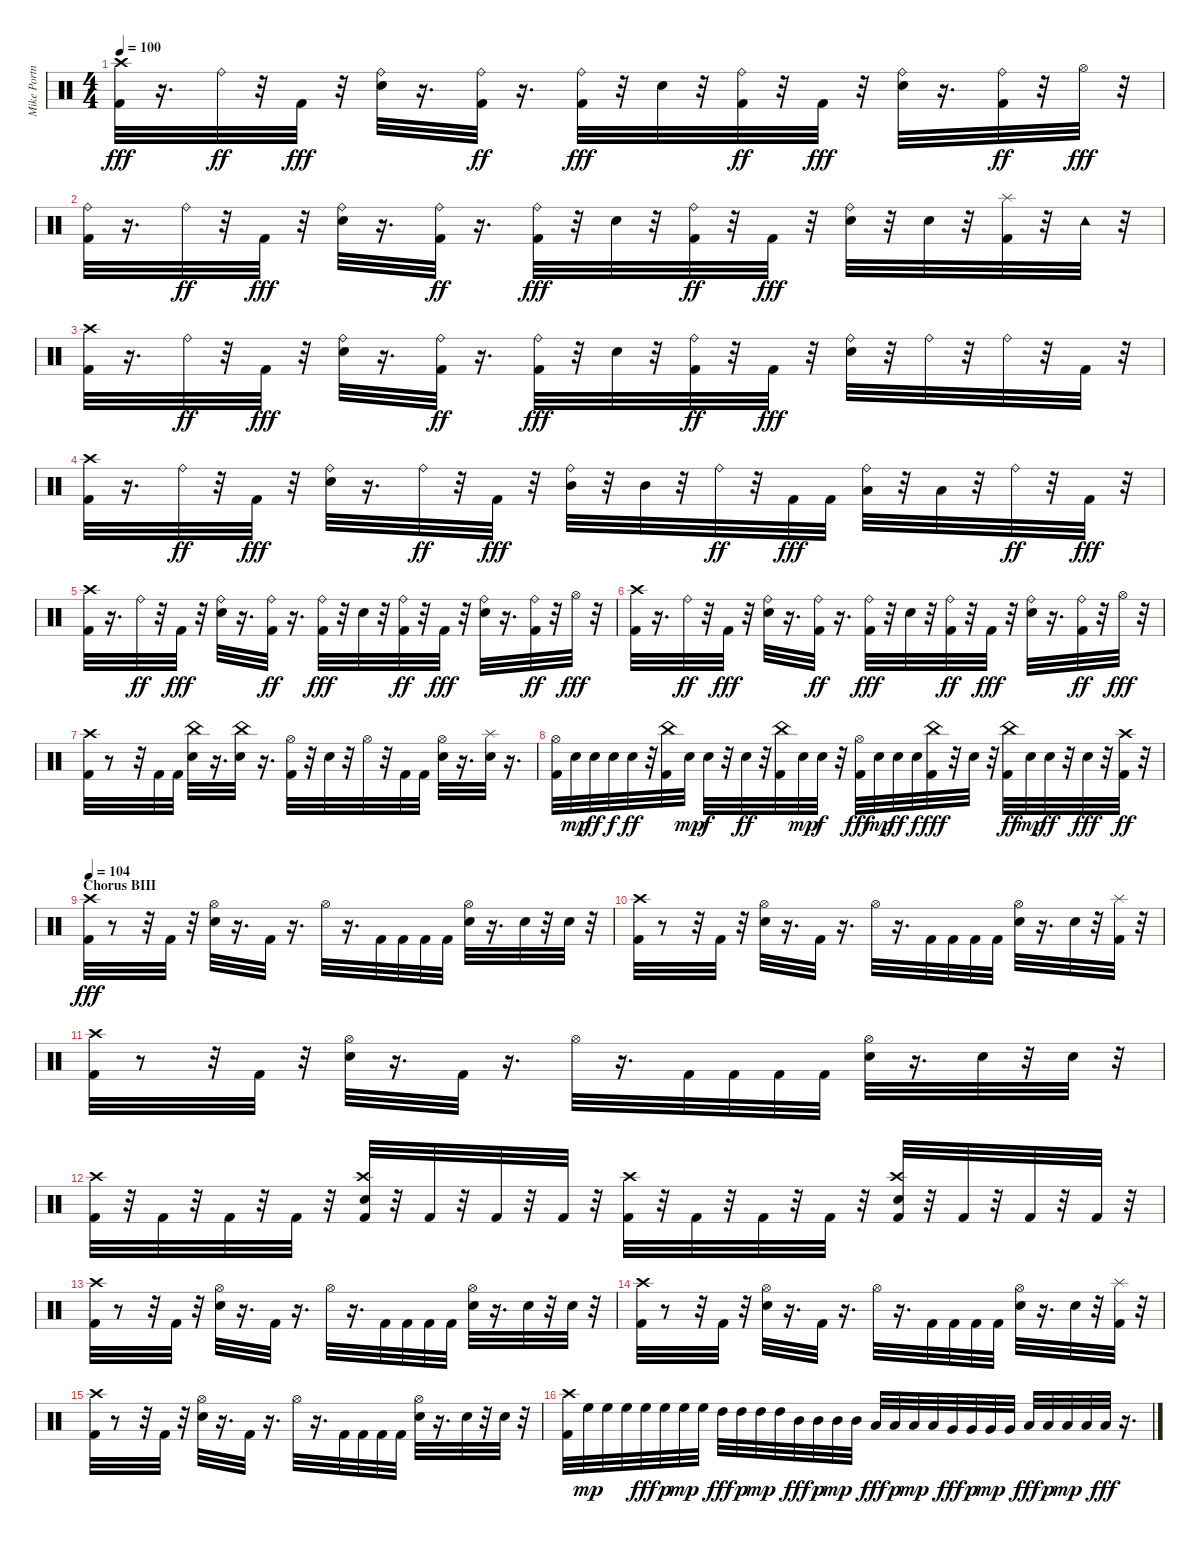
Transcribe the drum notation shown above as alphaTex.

\track ("Mike Portnoy" "Mike Portn") {instrument percussion}
\staff {score}
\articulation defaults
\ts (4 4)
\tempo 100
\clef neutral
\ks c
("Kick (hit) 2" "Crash high (hit)").32{dy fff} r.16{d} "Ride (bell)".32{dy ff} r.32 "Kick (hit) 2".32{dy fff} r.32 ("Ride (bell)" "Snare (hit) 2").32 r.16{d} ("Kick (hit) 2" "Ride (bell)").32{dy ff} r.16{d} ("Kick (hit) 2" "Ride (bell)").32{dy fff} r.32 "Snare (hit) 2".32 r.32 ("Kick (hit) 2" "Ride (bell)").32{dy ff} r.32 "Kick (hit) 2".32{dy fff} r.32 ("Ride (bell)" "Snare (hit) 2").32 r.16{d} ("Kick (hit) 2" "Ride (bell)").32{dy ff} r.32 "Hi-Hat (open)".32{dy fff} r.32 |
("Kick (hit) 2" "Ride (bell)").32 r.16{d} "Ride (bell)".32{dy ff} r.32 "Kick (hit) 2".32{dy fff} r.32 ("Ride (bell)" "Snare (hit) 2").32 r.16{d} ("Kick (hit) 2" "Ride (bell)").32{dy ff} r.16{d} ("Kick (hit) 2" "Ride (bell)").32{dy fff} r.32 "Snare (hit) 2".32 r.32 ("Kick (hit) 2" "Ride (bell)").32{dy ff} r.32 "Kick (hit) 2".32{dy fff} r.32 ("Ride (bell)" "Snare (hit) 2").32 r.32 "Snare (hit) 2".32 r.32 ("Kick (hit) 2" "Splash (hit)").32 r.32 "Tambourine (hit)".32 r.32 |
("Kick (hit) 2" "Crash high (hit)").32 r.16{d} "Ride (bell)".32{dy ff} r.32 "Kick (hit) 2".32{dy fff} r.32 ("Ride (bell)" "Snare (hit) 2").32 r.16{d} ("Kick (hit) 2" "Ride (bell)").32{dy ff} r.16{d} ("Kick (hit) 2" "Ride (bell)").32{dy fff} r.32 "Snare (hit) 2".32 r.32 ("Kick (hit) 2" "Ride (bell)").32{dy ff} r.32 "Kick (hit) 2".32{dy fff} r.32 ("Ride (bell)" "Snare (hit) 2").32 r.32 "Ride (bell)".32 r.32 "Ride (bell)".32 r.32 "Kick (hit) 2".32 r.32 |
("Kick (hit) 2" "Crash high (hit)").32 r.16{d} "Ride (bell)".32{dy ff} r.32 "Kick (hit) 2".32{dy fff} r.32 ("Ride (bell)" "Snare (hit) 2").32 r.16{d} "Ride (bell)".32{dy ff} r.32 "Kick (hit) 2".32{dy fff} r.32 ("Ride (bell)" "Mid Tom (hit)").32 r.32 "Mid Tom (hit)".32 r.32 "Ride (bell)".32{dy ff} r.32 "Kick (hit) 2".32{dy fff} "Kick (hit) 2".32 ("Ride (bell)" "Low Tom (hit)").32 r.32 "Low Tom (hit)".32 r.32 "Ride (bell)".32{dy ff} r.32 "Kick (hit) 2".32{dy fff} r.32 |
("Kick (hit) 2" "Crash high (hit)").32 r.16{d} "Ride (bell)".32{dy ff} r.32 "Kick (hit) 2".32{dy fff} r.32 ("Ride (bell)" "Snare (hit) 2").32 r.16{d} ("Kick (hit) 2" "Ride (bell)").32{dy ff} r.16{d} ("Kick (hit) 2" "Ride (bell)").32{dy fff} r.32 "Snare (hit) 2".32 r.32 ("Kick (hit) 2" "Ride (bell)").32{dy ff} r.32 "Kick (hit) 2".32{dy fff} r.32 ("Ride (bell)" "Snare (hit) 2").32 r.16{d} ("Kick (hit) 2" "Ride (bell)").32{dy ff} r.32 "Hi-Hat (open)".32{dy fff} r.32 |
("Kick (hit) 2" "Crash high (hit)").32 r.16{d} "Ride (bell)".32{dy ff} r.32 "Kick (hit) 2".32{dy fff} r.32 ("Ride (bell)" "Snare (hit) 2").32 r.16{d} ("Kick (hit) 2" "Ride (bell)").32{dy ff} r.16{d} ("Kick (hit) 2" "Ride (bell)").32{dy fff} r.32 "Snare (hit) 2".32 r.32 ("Kick (hit) 2" "Ride (bell)").32{dy ff} r.32 "Kick (hit) 2".32{dy fff} r.32 ("Ride (bell)" "Snare (hit) 2").32 r.16{d} ("Kick (hit) 2" "Ride (bell)").32{dy ff} r.32 "Hi-Hat (open)".32{dy fff} r.32 |
("Kick (hit) 2" "Crash high (hit)").32 r.8 r.32 "Kick (hit) 2".32 "Kick (hit) 2".32 ("Snare (hit) 2" "China (hit)").32 r.16{d} ("Snare (hit) 2" "China (hit)").32 r.16{d} ("Kick (hit) 2" "Hi-Hat (open)").32 r.32 "Snare (hit) 2".32 r.32 "Hi-Hat (open)".32 r.32 "Kick (hit) 2".32 "Kick (hit) 2".32 ("Snare (hit) 2" "Hi-Hat (open)").32 r.16{d} ("Snare (hit) 2" "Splash (hit)").32 r.16{d} |
("Kick (hit) 2" "Hi-Hat (open)").32 "Snare (hit) 2".32{dy mp} "Snare (hit) 2".32{dy ff} "Snare (hit) 2".32{dy f} "Snare (hit) 2".32{dy ff} r.32 ("Kick (hit) 2" "China (hit)").32 "Snare (hit) 2".32{dy mp} "Snare (hit) 2".32{dy f} r.32 "Snare (hit) 2".32{dy ff} r.32 ("Kick (hit) 2" "China (hit)").32 "Snare (hit) 2".32{dy mp} "Snare (hit) 2".32{dy f} r.32 ("Kick (hit) 2" "Hi-Hat (open)").32{dy fff} "Snare (hit) 2".32{dy mp} "Snare (hit) 2".32{dy ff} "Snare (hit) 2".32{dy f} ("Kick (hit) 2" "China (hit)").32{dy fff} r.32 "Snare (hit) 2".32 r.32 ("Kick (hit) 2" "China (hit)").32{dy ff} "Snare (hit) 2".32{dy mp} "Snare (hit) 2".32{dy ff} r.32 "Snare (hit) 2".32{dy fff} r.32 ("Kick (hit) 2" "Crash high (hit)").32{dy ff} r.32 |
\section ("" "Chorus BIII")
\tempo 104
("Kick (hit) 2" "Crash high (hit)").32{dy fff} r.8 r.32 "Kick (hit) 2".32 r.32 ("Hi-Hat (open)" "Snare (hit) 2").32 r.16{d} "Kick (hit) 2".32 r.16{d} "Hi-Hat (open)".32 r.16{d} "Kick (hit) 2".32 "Kick (hit) 2".32 "Kick (hit) 2".32 "Kick (hit) 2".32 ("Hi-Hat (open)" "Snare (hit) 2").32 r.16{d} "Snare (hit) 2".32 r.32 "Snare (hit) 2".32 r.32 |
("Kick (hit) 2" "Crash high (hit)").32 r.8 r.32 "Kick (hit) 2".32 r.32 ("Hi-Hat (open)" "Snare (hit) 2").32 r.16{d} "Kick (hit) 2".32 r.16{d} "Hi-Hat (open)".32 r.16{d} "Kick (hit) 2".32 "Kick (hit) 2".32 "Kick (hit) 2".32 "Kick (hit) 2".32 ("Hi-Hat (open)" "Snare (hit) 2").32 r.16{d} "Snare (hit) 2".32 r.32 ("Kick (hit) 2" "Splash (hit)").32 r.32 |
("Kick (hit) 2" "Crash high (hit)").32 r.8 r.32 "Kick (hit) 2".32 r.32 ("Hi-Hat (open)" "Snare (hit) 2").32 r.16{d} "Kick (hit) 2".32 r.16{d} "Hi-Hat (open)".32 r.16{d} "Kick (hit) 2".32 "Kick (hit) 2".32 "Kick (hit) 2".32 "Kick (hit) 2".32 ("Hi-Hat (open)" "Snare (hit) 2").32 r.16{d} "Snare (hit) 2".32 r.32 "Snare (hit) 2".32 r.32 |
("Kick (hit) 2" "Crash high (hit)").32 r.32 "Kick (hit) 2".32 r.32 "Kick (hit) 2".32 r.32 "Kick (hit) 2".32 r.32 ("Kick (hit) 2" "Crash high (hit)" "Snare (hit) 2").32 r.32 "Kick (hit) 2".32 r.32 "Kick (hit) 2".32 r.32 "Kick (hit) 2".32 r.32 ("Kick (hit) 2" "Crash high (hit)").32 r.32 "Kick (hit) 2".32 r.32 "Kick (hit) 2".32 r.32 "Kick (hit) 2".32 r.32 ("Kick (hit) 2" "Crash high (hit)" "Snare (hit) 2").32 r.32 "Kick (hit) 2".32 r.32 "Kick (hit) 2".32 r.32 "Kick (hit) 2".32 r.32 |
("Kick (hit) 2" "Crash high (hit)").32 r.8 r.32 "Kick (hit) 2".32 r.32 ("Hi-Hat (open)" "Snare (hit) 2").32 r.16{d} "Kick (hit) 2".32 r.16{d} "Hi-Hat (open)".32 r.16{d} "Kick (hit) 2".32 "Kick (hit) 2".32 "Kick (hit) 2".32 "Kick (hit) 2".32 ("Hi-Hat (open)" "Snare (hit) 2").32 r.16{d} "Snare (hit) 2".32 r.32 "Snare (hit) 2".32 r.32 |
("Kick (hit) 2" "Crash high (hit)").32 r.8 r.32 "Kick (hit) 2".32 r.32 ("Hi-Hat (open)" "Snare (hit) 2").32 r.16{d} "Kick (hit) 2".32 r.16{d} "Hi-Hat (open)".32 r.16{d} "Kick (hit) 2".32 "Kick (hit) 2".32 "Kick (hit) 2".32 "Kick (hit) 2".32 ("Hi-Hat (open)" "Snare (hit) 2").32 r.16{d} "Snare (hit) 2".32 r.32 ("Kick (hit) 2" "Splash (hit)").32 r.32 |
("Kick (hit) 2" "Crash high (hit)").32 r.8 r.32 "Kick (hit) 2".32 r.32 ("Hi-Hat (open)" "Snare (hit) 2").32 r.16{d} "Kick (hit) 2".32 r.16{d} "Hi-Hat (open)".32 r.16{d} "Kick (hit) 2".32 "Kick (hit) 2".32 "Kick (hit) 2".32 "Kick (hit) 2".32 ("Hi-Hat (open)" "Snare (hit) 2").32 r.16{d} "Snare (hit) 2".32 r.32 "Snare (hit) 2".32 r.32 |
("Kick (hit) 2" "Crash high (hit)").32 "High Floor Tom (hit)".32{dy mp} "High Floor Tom (hit)".32 "High Floor Tom (hit)".32 "High Floor Tom (hit)".32{dy fff} "High Floor Tom (hit)".32{dy p} "High Floor Tom (hit)".32{dy mp} "High Floor Tom (hit)".32 "High Tom (hit)".32{dy fff} "High Tom (hit)".32{dy p} "High Tom (hit)".32{dy mp} "High Tom (hit)".32 "Mid Tom (hit)".32{dy fff} "Mid Tom (hit)".32{dy p} "Mid Tom (hit)".32{dy mp} "Mid Tom (hit)".32 "Low Tom (hit)".32{dy fff} "Low Tom (hit)".32{dy p} "Low Tom (hit)".32{dy mp} "Low Tom (hit)".32 "Very Low Tom (hit)".32{dy fff} "Very Low Tom (hit)".32{dy p} "Very Low Tom (hit)".32{dy mp} "Very Low Tom (hit)".32 "Low Floor Tom (hit)".32{dy fff} "Low Floor Tom (hit)".32{dy p} "Low Floor Tom (hit)".32{dy mp} "Low Floor Tom (hit)".32 "Low Floor Tom (hit)".32{dy fff} r.16{d}
